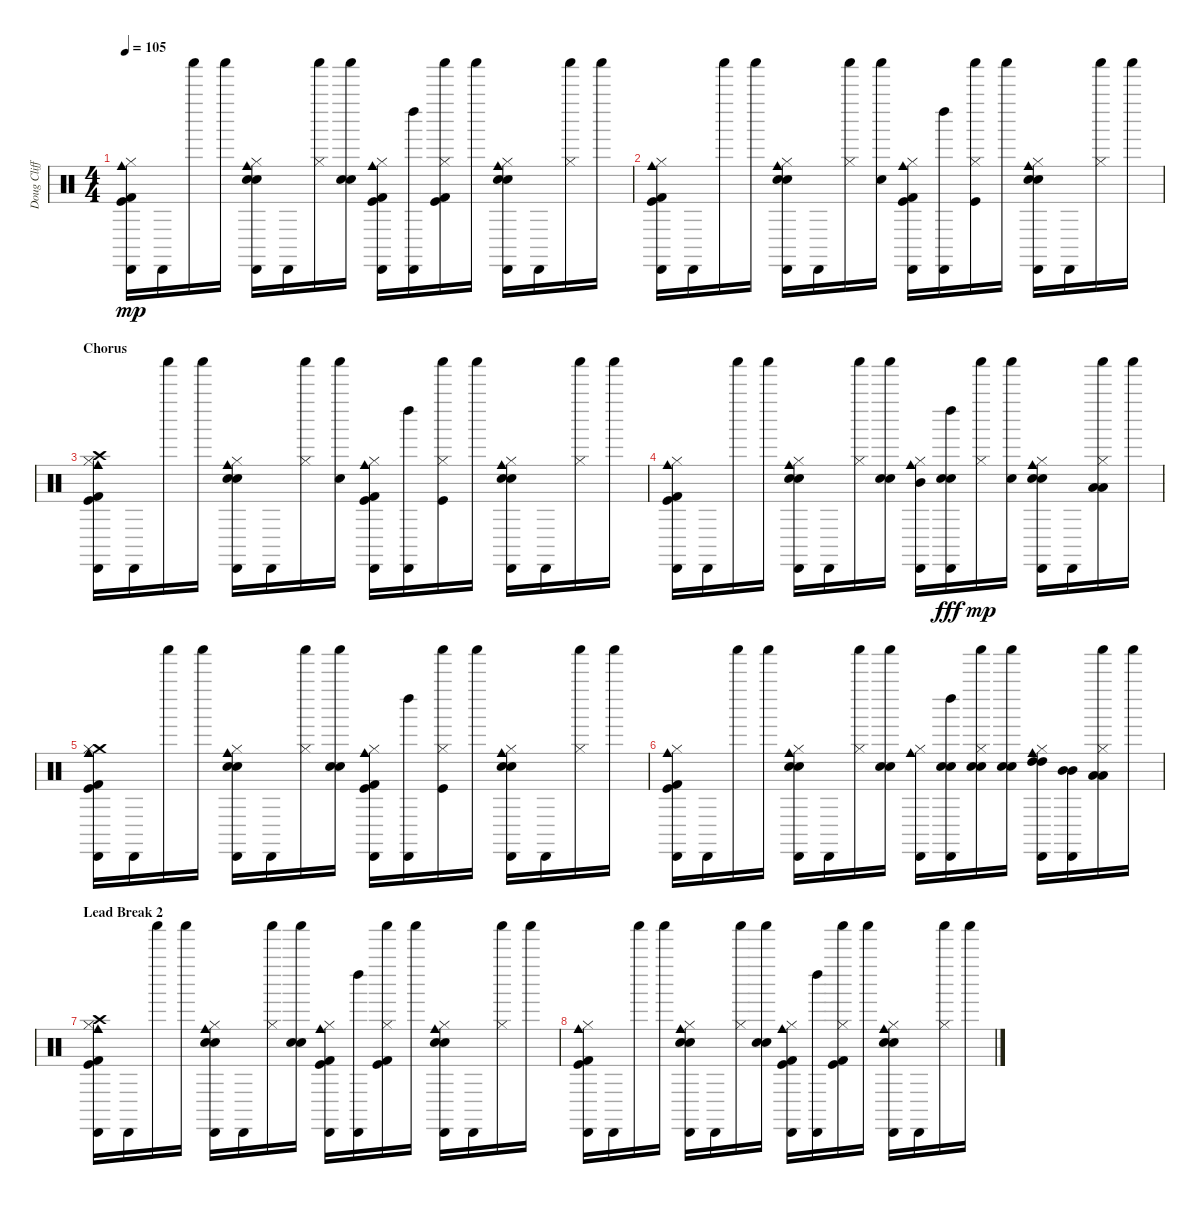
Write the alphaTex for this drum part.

\track ("Doug Clifford" "Doug Cliff") {instrument percussion}
\staff {score}
\articulation defaults
\ts (4 4)
\tempo 105
\clef neutral
\ks c
("Kick (hit) 2" "Cabasa (hit)" "Cowbell medium (hit)" "Kick (hit)" "Hi-Hat (closed)").16{dy mp} "Cabasa (hit)".16 "Shaker (hit)".16 "Shaker (hit)".16 ("Snare (hit) 2" "Electric Snare (hit)" "Cabasa (hit)" "Cowbell medium (hit)" "Hi-Hat (closed)").16 "Cabasa (hit)".16 ("Hi-Hat (closed)" "Shaker (hit)").16 ("Snare (hit) 2" "Electric Snare (hit)" "Shaker (hit)").16 ("Kick (hit) 2" "Cabasa (hit)" "Cowbell medium (hit)" "Kick (hit)" "Hi-Hat (closed)").16 ("Left Maraca (hit)" "Cabasa (hit)").16 ("Kick (hit) 2" "Kick (hit)" "Shaker (hit)" "Hi-Hat (closed)").16 "Shaker (hit)".16 ("Snare (hit) 2" "Cowbell medium (hit)" "Cabasa (hit)" "Electric Snare (hit)" "Hi-Hat (closed)").16 "Cabasa (hit)".16 ("Hi-Hat (closed)" "Shaker (hit)").16 "Shaker (hit)".16 |
("Kick (hit) 2" "Kick (hit)" "Cowbell medium (hit)" "Cabasa (hit)" "Hi-Hat (closed)").16 "Cabasa (hit)".16 "Shaker (hit)".16 "Shaker (hit)".16 ("Snare (hit) 2" "Cabasa (hit)" "Electric Snare (hit)" "Cowbell medium (hit)" "Hi-Hat (closed)").16 "Cabasa (hit)".16 ("Shaker (hit)" "Hi-Hat (closed)").16 ("Shaker (hit)" "Electric Snare (hit)").16 ("Kick (hit) 2" "Hi-Hat (closed)" "Kick (hit)" "Cowbell medium (hit)" "Cabasa (hit)").16 ("Left Maraca (hit)" "Cabasa (hit)").16 ("Hi-Hat (closed)" "Shaker (hit)" "Kick (hit)").16 "Shaker (hit)".16 ("Snare (hit) 2" "Cabasa (hit)" "Cowbell medium (hit)" "Electric Snare (hit)" "Hi-Hat (closed)").16 "Cabasa (hit)".16 ("Hi-Hat (closed)" "Shaker (hit)").16 "Shaker (hit)".16 |
\section ("" "Chorus")
("Kick (hit) 2" "Crash high (hit)" "Kick (hit)" "Cowbell medium (hit)" "Cabasa (hit)" "Hi-Hat (closed)").16 "Cabasa (hit)".16 "Shaker (hit)".16 "Shaker (hit)".16 ("Snare (hit) 2" "Electric Snare (hit)" "Cowbell medium (hit)" "Cabasa (hit)" "Hi-Hat (closed)").16 "Cabasa (hit)".16 ("Hi-Hat (closed)" "Shaker (hit)").16 ("Electric Snare (hit)" "Shaker (hit)").16 ("Kick (hit) 2" "Kick (hit)" "Hi-Hat (closed)" "Cowbell medium (hit)" "Cabasa (hit)").16 ("Left Maraca (hit)" "Cabasa (hit)").16 ("Shaker (hit)" "Hi-Hat (closed)" "Kick (hit)").16 "Shaker (hit)".16 ("Snare (hit) 2" "Electric Snare (hit)" "Cowbell medium (hit)" "Cabasa (hit)" "Hi-Hat (closed)").16 "Cabasa (hit)".16 ("Hi-Hat (closed)" "Shaker (hit)").16 "Shaker (hit)".16 |
("Kick (hit) 2" "Cowbell medium (hit)" "Cabasa (hit)" "Hi-Hat (closed)" "Kick (hit)").16 "Cabasa (hit)".16 "Shaker (hit)".16 "Shaker (hit)".16 ("Snare (hit) 2" "Electric Snare (hit)" "Cowbell medium (hit)" "Cabasa (hit)" "Hi-Hat (closed)").16 "Cabasa (hit)".16 ("Shaker (hit)" "Hi-Hat (closed)").16 ("Snare (hit) 2" "Electric Snare (hit)" "Shaker (hit)").16 ("Cabasa (hit)" "Mid Tom (hit)" "Hi-Hat (closed)" "Cowbell medium (hit)").16 ("Left Maraca (hit)" "Cabasa (hit)" "Electric Snare (hit)" "Snare (hit) 2").16{dy fff} ("Hi-Hat (closed)" "Shaker (hit)").16{dy mp} ("Shaker (hit)" "Electric Snare (hit)").16 ("Snare (hit) 2" "Hi-Hat (closed)" "Electric Snare (hit)" "Cabasa (hit)" "Cowbell medium (hit)").16 "Cabasa (hit)".16 ("Low Tom (hit)" "Low Tom (hit)" "Shaker (hit)" "Hi-Hat (closed)").16 "Shaker (hit)".16 |
("Kick (hit) 2" "Crash medium (hit)" "Cowbell medium (hit)" "Cabasa (hit)" "Kick (hit)" "Hi-Hat (closed)").16 "Cabasa (hit)".16 "Shaker (hit)".16 "Shaker (hit)".16 ("Snare (hit) 2" "Cowbell medium (hit)" "Cabasa (hit)" "Electric Snare (hit)" "Hi-Hat (closed)").16 "Cabasa (hit)".16 ("Shaker (hit)" "Hi-Hat (closed)").16 ("Snare (hit) 2" "Shaker (hit)" "Electric Snare (hit)").16 ("Kick (hit) 2" "Cowbell medium (hit)" "Hi-Hat (closed)" "Kick (hit)" "Cabasa (hit)").16 ("Left Maraca (hit)" "Cabasa (hit)").16 ("Shaker (hit)" "Kick (hit)" "Hi-Hat (closed)").16 "Shaker (hit)".16 ("Snare (hit) 2" "Cowbell medium (hit)" "Cabasa (hit)" "Electric Snare (hit)" "Hi-Hat (closed)").16 "Cabasa (hit)".16 ("Hi-Hat (closed)" "Shaker (hit)").16 "Shaker (hit)".16 |
("Kick (hit) 2" "Kick (hit)" "Cabasa (hit)" "Hi-Hat (closed)" "Cowbell medium (hit)").16 "Cabasa (hit)".16 "Shaker (hit)".16 "Shaker (hit)".16 ("Snare (hit) 2" "Cabasa (hit)" "Electric Snare (hit)" "Cowbell medium (hit)" "Hi-Hat (closed)").16 "Cabasa (hit)".16 ("Hi-Hat (closed)" "Shaker (hit)").16 ("Snare (hit) 2" "Electric Snare (hit)" "Shaker (hit)").16 ("Cowbell medium (hit)" "Hi-Hat (closed)" "Cabasa (hit)").16 ("Snare (hit) 2" "Left Maraca (hit)" "Electric Snare (hit)" "Cabasa (hit)").16 ("Snare (hit) 2" "Shaker (hit)" "Hi-Hat (closed)" "Electric Snare (hit)").16 ("Snare (hit) 2" "Electric Snare (hit)" "Shaker (hit)").16 ("High Tom (hit)" "Hi-Hat (closed)" "Cabasa (hit)" "Cowbell medium (hit)" "High Tom (hit)").16 ("Mid Tom (hit)" "Mid Tom (hit)" "Cabasa (hit)").16 ("Low Tom (hit)" "Hi-Hat (closed)" "Shaker (hit)" "Low Tom (hit)").16 "Shaker (hit)".16 |
\section ("" "Lead Break 2")
("Kick (hit) 2" "Crash high (hit)" "Cowbell medium (hit)" "Kick (hit)" "Cabasa (hit)" "Hi-Hat (closed)").16 "Cabasa (hit)".16 "Shaker (hit)".16 "Shaker (hit)".16 ("Snare (hit) 2" "Cowbell medium (hit)" "Cabasa (hit)" "Electric Snare (hit)" "Hi-Hat (closed)").16 "Cabasa (hit)".16 ("Hi-Hat (closed)" "Shaker (hit)").16 ("Snare (hit) 2" "Shaker (hit)" "Electric Snare (hit)").16 ("Kick (hit) 2" "Hi-Hat (closed)" "Cowbell medium (hit)" "Cabasa (hit)" "Kick (hit)").16 ("Left Maraca (hit)" "Cabasa (hit)").16 ("Kick (hit) 2" "Hi-Hat (closed)" "Shaker (hit)" "Kick (hit)").16 "Shaker (hit)".16 ("Snare (hit) 2" "Electric Snare (hit)" "Cowbell medium (hit)" "Cabasa (hit)" "Hi-Hat (closed)").16 "Cabasa (hit)".16 ("Shaker (hit)" "Hi-Hat (closed)").16 "Shaker (hit)".16 |
("Kick (hit) 2" "Cabasa (hit)" "Kick (hit)" "Cowbell medium (hit)" "Hi-Hat (closed)").16 "Cabasa (hit)".16 "Shaker (hit)".16 "Shaker (hit)".16 ("Snare (hit) 2" "Electric Snare (hit)" "Cowbell medium (hit)" "Cabasa (hit)" "Hi-Hat (closed)").16 "Cabasa (hit)".16 ("Shaker (hit)" "Hi-Hat (closed)").16 ("Snare (hit) 2" "Electric Snare (hit)" "Shaker (hit)").16 ("Kick (hit) 2" "Cabasa (hit)" "Kick (hit)" "Hi-Hat (closed)" "Cowbell medium (hit)").16 ("Left Maraca (hit)" "Cabasa (hit)").16 ("Kick (hit) 2" "Hi-Hat (closed)" "Kick (hit)" "Shaker (hit)").16 "Shaker (hit)".16 ("Snare (hit) 2" "Cabasa (hit)" "Electric Snare (hit)" "Cowbell medium (hit)" "Hi-Hat (closed)").16 "Cabasa (hit)".16 ("Shaker (hit)" "Hi-Hat (closed)").16 "Shaker (hit)".16
